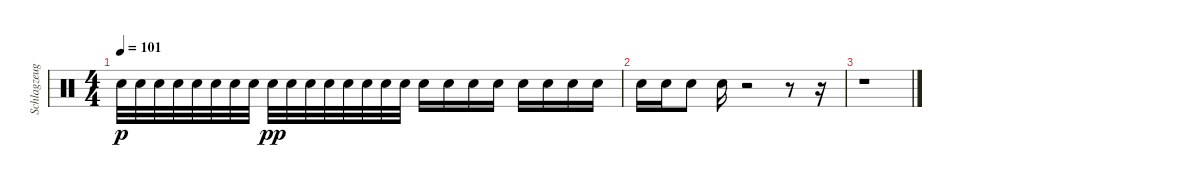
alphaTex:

\track ("Schlagzeug" "Schlagzeug") {instrument percussion}
\staff {score}
\articulation defaults
\ts (4 4)
\tempo 101
\clef neutral
\ks c "Snare (hit) 2".32{dy p} "Snare (hit) 2".32 "Snare (hit) 2".32 "Snare (hit) 2".32 "Snare (hit) 2".32 "Snare (hit) 2".32 "Snare (hit) 2".32 "Snare (hit) 2".32 "Snare (hit) 2".32{dy pp} "Snare (hit) 2".32 "Snare (hit) 2".32 "Snare (hit) 2".32 "Snare (hit) 2".32 "Snare (hit) 2".32 "Snare (hit) 2".32 "Snare (hit) 2".32 "Snare (hit) 2".16 "Snare (hit) 2".16 "Snare (hit) 2".16 "Snare (hit) 2".16 "Snare (hit) 2".16 "Snare (hit) 2".16 "Snare (hit) 2".16 "Snare (hit) 2".16
|
"Snare (hit) 2".16 "Snare (hit) 2".16 "Snare (hit) 2".8 "Snare (hit) 2".16 r.2 r.8 r.16 |
r.1
